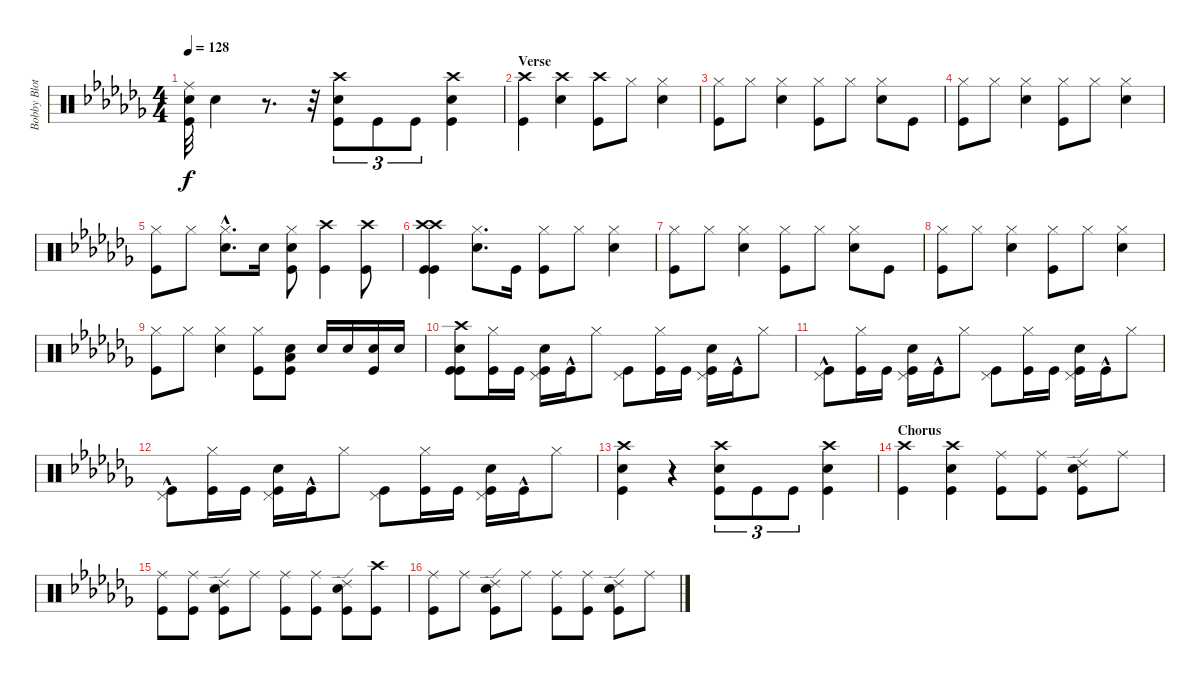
\track ("Bobby Blotzer" "Bobby Blot") {instrument percussion}
\staff {score}
\articulation defaults
\ts (4 4)
\tempo 128
\clef neutral
\ks cb
("Ride (middle)" "Kick (hit)" "Snare (hit) 2").32{dy f} "Snare (hit) 2".4 r.8{d} r.32 ("Kick (hit)" "Crash high (hit)" "Snare (hit) 2").8{tu (3 2)} "Kick (hit)".8{tu (3 2)} "Kick (hit)".8{tu (3 2)} ("Crash high (hit)" "Kick (hit)" "Snare (hit) 2").4 |
\section ("" "Verse")
("Crash high (hit)" "Kick (hit)").4 ("Snare (hit) 2" "Crash high (hit)").4 ("Crash high (hit)" "Kick (hit)").8 "Hi-Hat (closed)".8 ("Hi-Hat (closed)" "Snare (hit) 2").4 |
("Kick (hit)" "Hi-Hat (closed)").8 "Hi-Hat (closed)".8 ("Hi-Hat (closed)" "Snare (hit) 2").4 ("Kick (hit)" "Hi-Hat (closed)").8 "Hi-Hat (closed)".8 ("Hi-Hat (closed)" "Snare (hit) 2").8 "Kick (hit)".8 |
("Hi-Hat (closed)" "Kick (hit)").8 "Hi-Hat (closed)".8 ("Hi-Hat (closed)" "Snare (hit) 2").4 ("Kick (hit)" "Hi-Hat (closed)").8 "Hi-Hat (closed)".8 ("Hi-Hat (closed)" "Snare (hit) 2").4 |
("Hi-Hat (closed)" "Kick (hit)").8 "Hi-Hat (closed)".8 ("Snare (hit) 2"{hac} "Hi-Hat (closed)").8{d} "Snare (hit) 2".16 ("Snare (hit) 2" "Hi-Hat (closed)" "Kick (hit)").8 ("Crash high (hit)" "Kick (hit)").4 ("Kick (hit)" "Crash high (hit)").8 |
("Crash high (hit)" "Kick (hit)" "Crash high (hit)" "Kick (hit)").4 ("Snare (hit) 2" "Hi-Hat (closed)").8{d} "Kick (hit)".16 ("Hi-Hat (closed)" "Kick (hit)").8 "Hi-Hat (closed)".8 ("Hi-Hat (closed)" "Snare (hit) 2").4 |
("Kick (hit)" "Hi-Hat (closed)").8 "Hi-Hat (closed)".8 ("Hi-Hat (closed)" "Snare (hit) 2").4 ("Kick (hit)" "Hi-Hat (closed)").8 "Hi-Hat (closed)".8 ("Hi-Hat (closed)" "Snare (hit) 2").8 "Kick (hit)".8 |
("Hi-Hat (closed)" "Kick (hit)").8 "Hi-Hat (closed)".8 ("Hi-Hat (closed)" "Snare (hit) 2").4 ("Kick (hit)" "Hi-Hat (closed)").8 "Hi-Hat (closed)".8 ("Hi-Hat (closed)" "Snare (hit) 2").4 |
("Hi-Hat (closed)" "Kick (hit)").8 "Hi-Hat (closed)".8 ("Snare (hit) 2" "Hi-Hat (closed)").4 ("Hi-Hat (closed)" "Kick (hit)").8 ("Kick (hit)" "Low Tom (hit)" "Snare (hit) 2").8 "Snare (hit) 2".16 "Snare (hit) 2".16 ("Kick (hit)" "Snare (hit) 2").16 "Snare (hit) 2".16 |
("Kick (hit)" "Kick (hit)" "Crash high (hit)" "Snare (hit) 2").8 ("Kick (hit)" "Hi-Hat (closed)").16 "Kick (hit)".16 ("Snare (hit) 2" "Kick (hit)" "Pedal Hi-Hat (hit)").16 "Kick (hit)"{hac}.16 "Hi-Hat (closed)".8 ("Pedal Hi-Hat (hit)" "Kick (hit)").8 ("Hi-Hat (closed)" "Kick (hit)").16 "Kick (hit)".16 ("Snare (hit) 2" "Kick (hit)" "Pedal Hi-Hat (hit)").16 "Kick (hit)"{hac}.16 "Hi-Hat (closed)".8 |
("Pedal Hi-Hat (hit)" "Kick (hit)"{hac}).8 ("Hi-Hat (closed)" "Kick (hit)").16 "Kick (hit)".16 ("Snare (hit) 2" "Kick (hit)" "Pedal Hi-Hat (hit)").16 "Kick (hit)"{hac}.16 "Hi-Hat (closed)".8 ("Kick (hit)" "Pedal Hi-Hat (hit)").8 ("Hi-Hat (closed)" "Kick (hit)").16 "Kick (hit)".16 ("Pedal Hi-Hat (hit)" "Snare (hit) 2" "Kick (hit)").16 "Kick (hit)"{hac}.16 "Hi-Hat (closed)".8 |
("Kick (hit)"{hac} "Pedal Hi-Hat (hit)").8 ("Hi-Hat (closed)" "Kick (hit)").16 "Kick (hit)".16 ("Kick (hit)" "Snare (hit) 2" "Pedal Hi-Hat (hit)").16 "Kick (hit)"{hac}.16 "Hi-Hat (closed)".8 ("Pedal Hi-Hat (hit)" "Kick (hit)").8 ("Kick (hit)" "Hi-Hat (closed)").16 "Kick (hit)".16 ("Pedal Hi-Hat (hit)" "Kick (hit)" "Snare (hit) 2").16 "Kick (hit)"{hac}.16 "Hi-Hat (closed)".8 |
("Kick (hit)" "Crash high (hit)" "Snare (hit) 2").4 r.4 ("Crash high (hit)" "Snare (hit) 2" "Kick (hit)").8{tu (3 2)} "Kick (hit)".8{tu (3 2)} "Kick (hit)".8{tu (3 2)} ("Snare (hit) 2" "Kick (hit)" "Crash high (hit)").4 |
\section ("" "Chorus")
("Kick (hit)" "Crash high (hit)").4 ("Crash high (hit)" "Kick (hit)" "Snare (hit) 2").4 ("Kick (hit)" "Ride (middle)").8 ("Kick (hit)" "Ride (middle)").8 ("Snare (hit) 2" "Kick (hit)" "Ride (edge) 2").8 "Ride (middle)".8 |
("Kick (hit)" "Ride (middle)").8 ("Kick (hit)" "Ride (middle)").8 ("Snare (hit) 2" "Kick (hit)" "Ride (edge) 2").8 "Ride (middle)".8 ("Ride (middle)" "Kick (hit)").8 ("Kick (hit)" "Ride (middle)").8 ("Ride (edge) 2" "Kick (hit)" "Snare (hit) 2").8 ("Kick (hit)" "Crash high (hit)").8 |
("Kick (hit)" "Ride (middle)").8 "Ride (middle)".8 ("Kick (hit)" "Snare (hit) 2" "Ride (edge) 2").8 "Ride (middle)".8 ("Kick (hit)" "Ride (middle)").8 ("Kick (hit)" "Ride (middle)").8 ("Snare (hit) 2" "Kick (hit)" "Ride (edge) 2").8 "Ride (middle)".8
